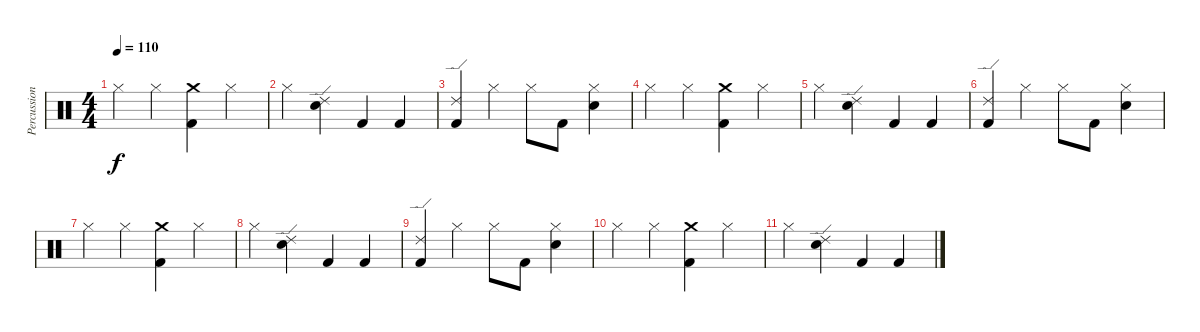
\track ("Percussion" "Percussion") {instrument percussion}
\staff {score}
\articulation defaults
\ts (4 4)
\tempo 110
\clef neutral
\ks c "Hi-Hat (closed)".4{dy f} "Hi-Hat (closed)".4
("Crash medium (hit)" "Kick (hit) 2").4 "Hi-Hat (closed)".4 |
"Hi-Hat (closed)".4 ("Ride (edge) 2" "Electric Snare (hit)").4 "Kick (hit) 2".4 "Kick (hit) 2".4 |
("Ride (edge) 2" "Kick (hit) 2").4 "Hi-Hat (closed)".4 "Hi-Hat (closed)".8 "Kick (hit) 2".8 ("Hi-Hat (closed)" "Electric Snare (hit)").4 |
"Hi-Hat (closed)".4 "Hi-Hat (closed)".4 ("Crash medium (hit)" "Kick (hit) 2").4 "Hi-Hat (closed)".4 |
"Hi-Hat (closed)".4 ("Ride (edge) 2" "Electric Snare (hit)").4 "Kick (hit) 2".4 "Kick (hit) 2".4 |
("Ride (edge) 2" "Kick (hit) 2").4 "Hi-Hat (closed)".4 "Hi-Hat (closed)".8 "Kick (hit) 2".8 ("Hi-Hat (closed)" "Electric Snare (hit)").4 |
"Hi-Hat (closed)".4 "Hi-Hat (closed)".4 ("Crash medium (hit)" "Kick (hit) 2").4 "Hi-Hat (closed)".4 |
"Hi-Hat (closed)".4 ("Ride (edge) 2" "Electric Snare (hit)").4 "Kick (hit) 2".4 "Kick (hit) 2".4 |
("Ride (edge) 2" "Kick (hit) 2").4 "Hi-Hat (closed)".4 "Hi-Hat (closed)".8 "Kick (hit) 2".8 ("Hi-Hat (closed)" "Electric Snare (hit)").4 |
"Hi-Hat (closed)".4 "Hi-Hat (closed)".4 ("Crash medium (hit)" "Kick (hit) 2").4 "Hi-Hat (closed)".4 |
"Hi-Hat (closed)".4 ("Ride (edge) 2" "Electric Snare (hit)").4 "Kick (hit) 2".4 "Kick (hit) 2".4
